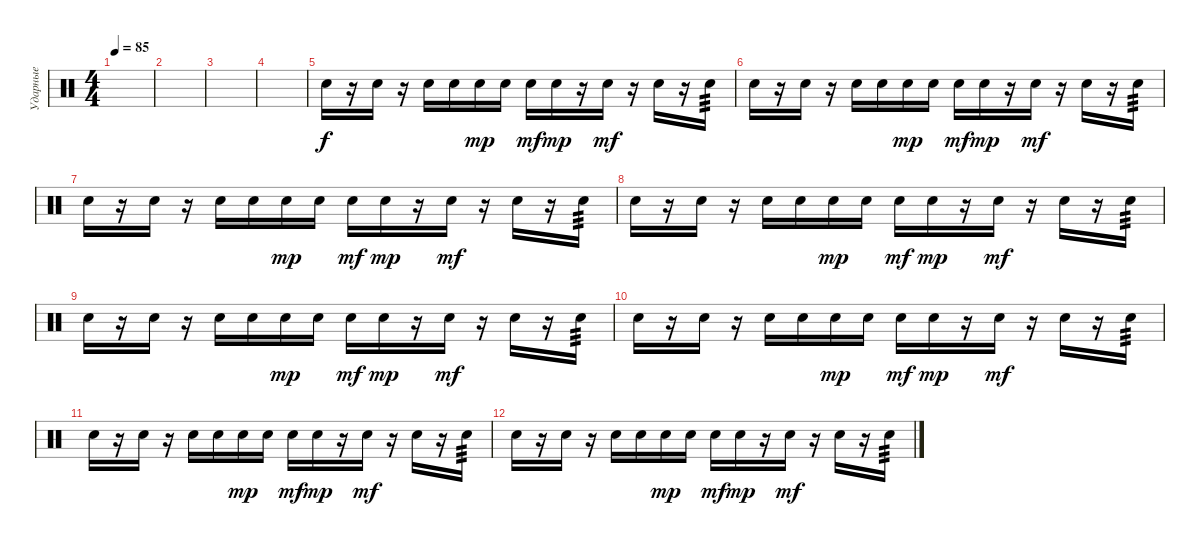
\track ("Ударные" "Ударные") {instrument percussion}
\staff {score}
\articulation defaults
\ts (4 4)
\tempo 85
\clef neutral
\ks c
|
|
|
|
"Hand Clap (hit)".16 r.16 "Hand Clap (hit)".16 r.16 "Hand Clap (hit)".16 "Hand Clap (hit)".16 "Hand Clap (hit)".16{dy mp} "Hand Clap (hit)".16 "Hand Clap (hit)".16{dy mf} "Hand Clap (hit)".16{dy mp} r.16 "Hand Clap (hit)".16{dy mf} r.16 "Hand Clap (hit)".16 r.16 "Hand Clap (hit)".16{tp 3} |
"Hand Clap (hit)".16 r.16 "Hand Clap (hit)".16 r.16 "Hand Clap (hit)".16 "Hand Clap (hit)".16 "Hand Clap (hit)".16{dy mp} "Hand Clap (hit)".16 "Hand Clap (hit)".16{dy mf} "Hand Clap (hit)".16{dy mp} r.16 "Hand Clap (hit)".16{dy mf} r.16 "Hand Clap (hit)".16 r.16 "Hand Clap (hit)".16{tp 3} |
"Hand Clap (hit)".16 r.16 "Hand Clap (hit)".16 r.16 "Hand Clap (hit)".16 "Hand Clap (hit)".16 "Hand Clap (hit)".16{dy mp} "Hand Clap (hit)".16 "Hand Clap (hit)".16{dy mf} "Hand Clap (hit)".16{dy mp} r.16 "Hand Clap (hit)".16{dy mf} r.16 "Hand Clap (hit)".16 r.16 "Hand Clap (hit)".16{tp 3} |
"Hand Clap (hit)".16 r.16 "Hand Clap (hit)".16 r.16 "Hand Clap (hit)".16 "Hand Clap (hit)".16 "Hand Clap (hit)".16{dy mp} "Hand Clap (hit)".16 "Hand Clap (hit)".16{dy mf} "Hand Clap (hit)".16{dy mp} r.16 "Hand Clap (hit)".16{dy mf} r.16 "Hand Clap (hit)".16 r.16 "Hand Clap (hit)".16{tp 3} |
"Hand Clap (hit)".16 r.16 "Hand Clap (hit)".16 r.16 "Hand Clap (hit)".16 "Hand Clap (hit)".16 "Hand Clap (hit)".16{dy mp} "Hand Clap (hit)".16 "Hand Clap (hit)".16{dy mf} "Hand Clap (hit)".16{dy mp} r.16 "Hand Clap (hit)".16{dy mf} r.16 "Hand Clap (hit)".16 r.16 "Hand Clap (hit)".16{tp 3} |
"Hand Clap (hit)".16 r.16 "Hand Clap (hit)".16 r.16 "Hand Clap (hit)".16 "Hand Clap (hit)".16 "Hand Clap (hit)".16{dy mp} "Hand Clap (hit)".16 "Hand Clap (hit)".16{dy mf} "Hand Clap (hit)".16{dy mp} r.16 "Hand Clap (hit)".16{dy mf} r.16 "Hand Clap (hit)".16 r.16 "Hand Clap (hit)".16{tp 3} |
"Hand Clap (hit)".16 r.16 "Hand Clap (hit)".16 r.16 "Hand Clap (hit)".16 "Hand Clap (hit)".16 "Hand Clap (hit)".16{dy mp} "Hand Clap (hit)".16 "Hand Clap (hit)".16{dy mf} "Hand Clap (hit)".16{dy mp} r.16 "Hand Clap (hit)".16{dy mf} r.16 "Hand Clap (hit)".16 r.16 "Hand Clap (hit)".16{tp 3} |
"Hand Clap (hit)".16 r.16 "Hand Clap (hit)".16 r.16 "Hand Clap (hit)".16 "Hand Clap (hit)".16 "Hand Clap (hit)".16{dy mp} "Hand Clap (hit)".16 "Hand Clap (hit)".16{dy mf} "Hand Clap (hit)".16{dy mp} r.16 "Hand Clap (hit)".16{dy mf} r.16 "Hand Clap (hit)".16 r.16 "Hand Clap (hit)".16{tp 3}
